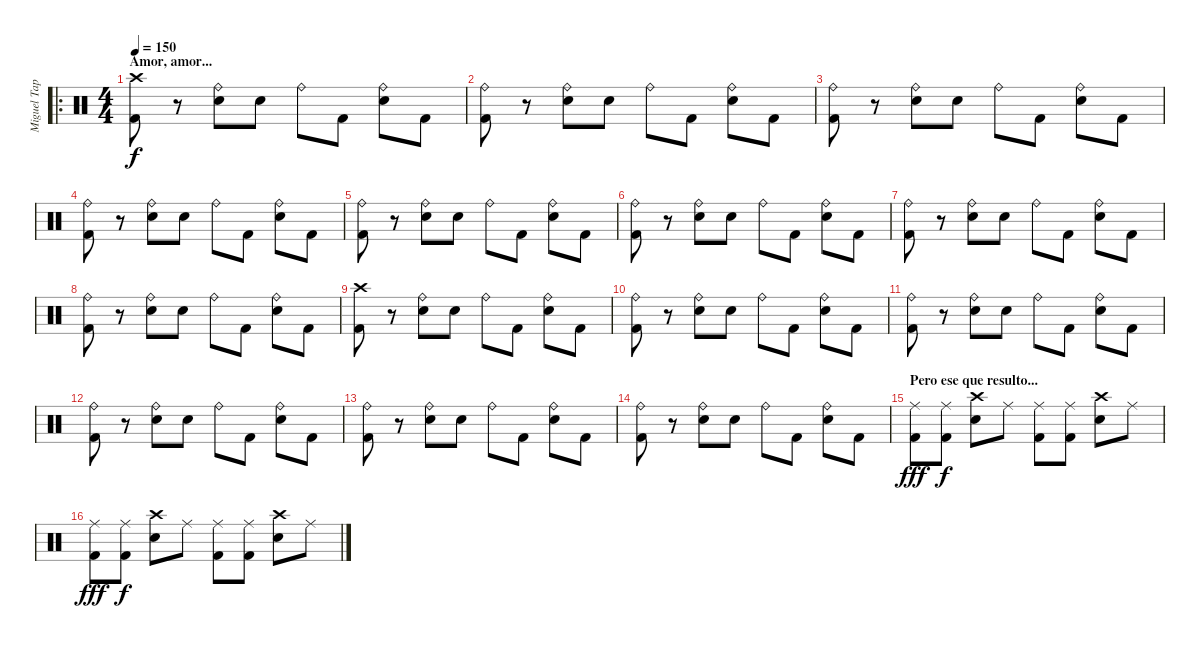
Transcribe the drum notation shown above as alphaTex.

\track ("Miguel Tapia" "Miguel Tap") {instrument percussion}
\staff {score}
\articulation defaults
\ro
\ts (4 4)
\section ("" "Amor, amor...")
\tempo 150
\clef neutral
\ks c
("Crash high (hit)" "Kick (hit) 2").8{dy f} r.8 ("Ride (bell)" "Snare (hit) 2").8 "Snare (hit) 2".8 "Ride (bell)".8 "Kick (hit) 2".8 ("Ride (bell)" "Snare (hit) 2").8 "Kick (hit) 2".8 |
("Ride (bell)" "Kick (hit) 2").8 r.8 ("Ride (bell)" "Snare (hit) 2").8 "Snare (hit) 2".8 "Ride (bell)".8 "Kick (hit) 2".8 ("Ride (bell)" "Snare (hit) 2").8 "Kick (hit) 2".8 |
("Ride (bell)" "Kick (hit) 2").8 r.8 ("Ride (bell)" "Snare (hit) 2").8 "Snare (hit) 2".8 "Ride (bell)".8 "Kick (hit) 2".8 ("Ride (bell)" "Snare (hit) 2").8 "Kick (hit) 2".8 |
("Ride (bell)" "Kick (hit) 2").8 r.8 ("Ride (bell)" "Snare (hit) 2").8 "Snare (hit) 2".8 "Ride (bell)".8 "Kick (hit) 2".8 ("Ride (bell)" "Snare (hit) 2").8 "Kick (hit) 2".8 |
("Ride (bell)" "Kick (hit) 2").8 r.8 ("Ride (bell)" "Snare (hit) 2").8 "Snare (hit) 2".8 "Ride (bell)".8 "Kick (hit) 2".8 ("Ride (bell)" "Snare (hit) 2").8 "Kick (hit) 2".8 |
("Ride (bell)" "Kick (hit) 2").8 r.8 ("Ride (bell)" "Snare (hit) 2").8 "Snare (hit) 2".8 "Ride (bell)".8 "Kick (hit) 2".8 ("Ride (bell)" "Snare (hit) 2").8 "Kick (hit) 2".8 |
("Ride (bell)" "Kick (hit) 2").8 r.8 ("Ride (bell)" "Snare (hit) 2").8 "Snare (hit) 2".8 "Ride (bell)".8 "Kick (hit) 2".8 ("Ride (bell)" "Snare (hit) 2").8 "Kick (hit) 2".8 |
("Ride (bell)" "Kick (hit) 2").8 r.8 ("Ride (bell)" "Snare (hit) 2").8 "Snare (hit) 2".8 "Ride (bell)".8 "Kick (hit) 2".8 ("Ride (bell)" "Snare (hit) 2").8 "Kick (hit) 2".8 |
("Crash high (hit)" "Kick (hit) 2").8 r.8 ("Ride (bell)" "Snare (hit) 2").8 "Snare (hit) 2".8 "Ride (bell)".8 "Kick (hit) 2".8 ("Ride (bell)" "Snare (hit) 2").8 "Kick (hit) 2".8 |
("Ride (bell)" "Kick (hit) 2").8 r.8 ("Ride (bell)" "Snare (hit) 2").8 "Snare (hit) 2".8 "Ride (bell)".8 "Kick (hit) 2".8 ("Ride (bell)" "Snare (hit) 2").8 "Kick (hit) 2".8 |
("Ride (bell)" "Kick (hit) 2").8 r.8 ("Ride (bell)" "Snare (hit) 2").8 "Snare (hit) 2".8 "Ride (bell)".8 "Kick (hit) 2".8 ("Ride (bell)" "Snare (hit) 2").8 "Kick (hit) 2".8 |
("Ride (bell)" "Kick (hit) 2").8 r.8 ("Ride (bell)" "Snare (hit) 2").8 "Snare (hit) 2".8 "Ride (bell)".8 "Kick (hit) 2".8 ("Ride (bell)" "Snare (hit) 2").8 "Kick (hit) 2".8 |
("Ride (bell)" "Kick (hit) 2").8 r.8 ("Ride (bell)" "Snare (hit) 2").8 "Snare (hit) 2".8 "Ride (bell)".8 "Kick (hit) 2".8 ("Ride (bell)" "Snare (hit) 2").8 "Kick (hit) 2".8 |
("Ride (bell)" "Kick (hit) 2").8 r.8 ("Ride (bell)" "Snare (hit) 2").8 "Snare (hit) 2".8 "Ride (bell)".8 "Kick (hit) 2".8 ("Ride (bell)" "Snare (hit) 2").8 "Kick (hit) 2".8 |
\section ("" "Pero ese que resulto...")
("Ride (middle)" "Kick (hit) 2").8{dy fff} ("Ride (middle)" "Kick (hit) 2").8{dy f} ("Crash high (hit)" "Snare (hit) 2").8 "Ride (middle)".8 ("Ride (middle)" "Kick (hit) 2").8 ("Ride (middle)" "Kick (hit) 2").8 ("Crash high (hit)" "Snare (hit) 2").8 "Ride (middle)".8 |
("Ride (middle)" "Kick (hit) 2").8{dy fff} ("Ride (middle)" "Kick (hit) 2").8{dy f} ("Crash high (hit)" "Snare (hit) 2").8 "Ride (middle)".8 ("Ride (middle)" "Kick (hit) 2").8 ("Ride (middle)" "Kick (hit) 2").8 ("Crash high (hit)" "Snare (hit) 2").8 "Ride (middle)".8
